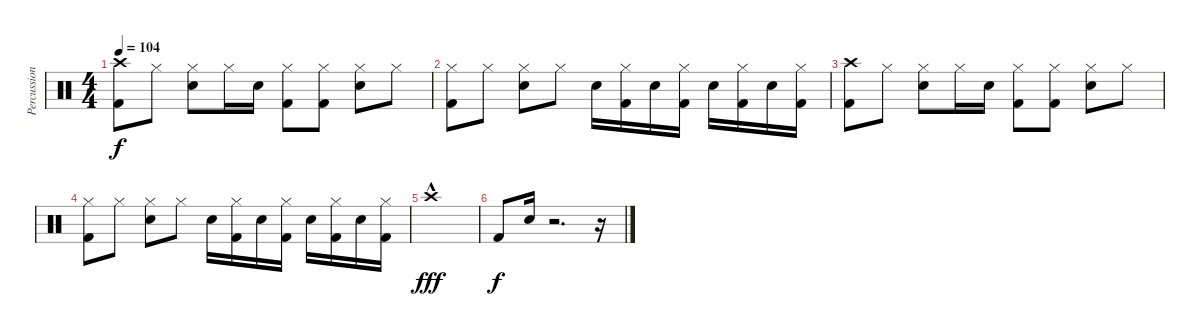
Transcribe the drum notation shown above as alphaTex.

\track ("Percussion" "Percussion") {instrument percussion}
\staff {score}
\articulation defaults
\ts (4 4)
\tempo 104
\clef neutral
\ks c
("Crash high (hit)" "Kick (hit) 2").8{dy f} "Hi-Hat (closed)".8 ("Hi-Hat (closed)" "Snare (hit) 2").8 "Hi-Hat (closed)".16 "Snare (hit) 2".16 ("Hi-Hat (closed)" "Kick (hit) 2").8 ("Hi-Hat (closed)" "Kick (hit) 2").8 ("Hi-Hat (closed)" "Snare (hit) 2").8 "Hi-Hat (closed)".8 |
("Hi-Hat (closed)" "Kick (hit) 2").8 "Hi-Hat (closed)".8 ("Hi-Hat (closed)" "Snare (hit) 2").8 "Hi-Hat (closed)".8 "Snare (hit) 2".16 ("Hi-Hat (closed)" "Kick (hit) 2").16 "Snare (hit) 2".16 ("Hi-Hat (closed)" "Kick (hit) 2").16 "Snare (hit) 2".16 ("Hi-Hat (closed)" "Kick (hit) 2").16 "Snare (hit) 2".16 ("Hi-Hat (closed)" "Kick (hit) 2").16 |
("Crash high (hit)" "Kick (hit) 2").8 "Hi-Hat (closed)".8 ("Hi-Hat (closed)" "Snare (hit) 2").8 "Hi-Hat (closed)".16 "Snare (hit) 2".16 ("Hi-Hat (closed)" "Kick (hit) 2").8 ("Hi-Hat (closed)" "Kick (hit) 2").8 ("Hi-Hat (closed)" "Snare (hit) 2").8 "Hi-Hat (closed)".8 |
("Hi-Hat (closed)" "Kick (hit) 2").8 "Hi-Hat (closed)".8 ("Hi-Hat (closed)" "Snare (hit) 2").8 "Hi-Hat (closed)".8 "Snare (hit) 2".16 ("Hi-Hat (closed)" "Kick (hit) 2").16 "Snare (hit) 2".16 ("Hi-Hat (closed)" "Kick (hit) 2").16 "Snare (hit) 2".16 ("Hi-Hat (closed)" "Kick (hit) 2").16 "Snare (hit) 2".16 ("Hi-Hat (closed)" "Kick (hit) 2").16 |
"Crash high (hit)"{hac}.1{dy fff} |
"Kick (hit) 2".8{dy f} "Snare (hit) 2".16 r.2{d} r.16
